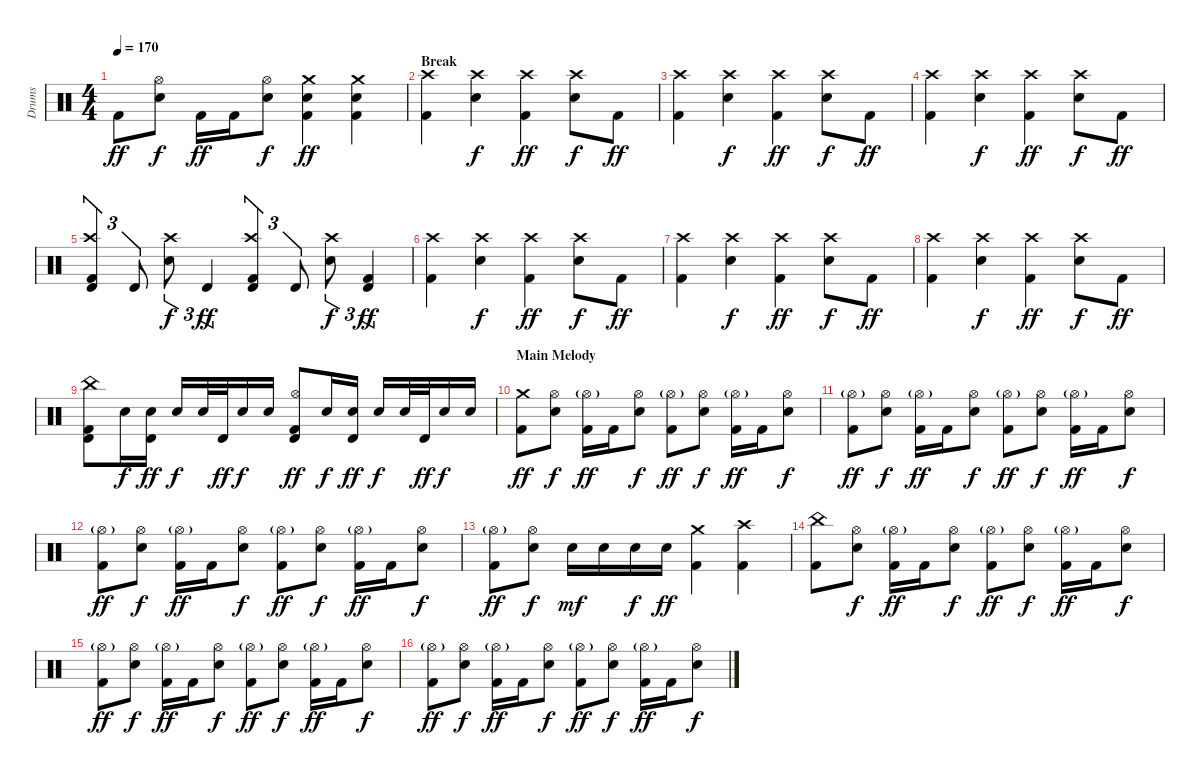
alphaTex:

\track ("Drums" "Drums") {instrument percussion}
\staff {score}
\articulation defaults
\ts (4 4)
\tempo 170
\clef neutral
\ks c "Kick (hit) 2".8{dy ff}
("Hi-Hat (open)" "Electric Snare (hit)").8{dy f} "Kick (hit) 2".16{dy ff} "Kick (hit) 2".16 ("Hi-Hat (open)" "Electric Snare (hit)").8{dy f} ("Crash medium (hit)" "Electric Snare (hit)" "Kick (hit) 2").4{dy ff} ("Crash medium (hit)" "Electric Snare (hit)" "Kick (hit) 2").4 |
\section ("" "Break")
("Crash high (hit)" "Kick (hit) 2").4{volume 13} ("Crash high (hit)" "Electric Snare (hit)").4{dy f} ("Crash high (hit)" "Kick (hit) 2").4{dy ff} ("Crash high (hit)" "Electric Snare (hit)").8{dy f} "Kick (hit) 2".8{dy ff} |
("Crash high (hit)" "Kick (hit) 2").4 ("Crash high (hit)" "Electric Snare (hit)").4{dy f} ("Crash high (hit)" "Kick (hit) 2").4{dy ff} ("Crash high (hit)" "Electric Snare (hit)").8{dy f} "Kick (hit) 2".8{dy ff} |
("Crash high (hit)" "Kick (hit) 2").4 ("Crash high (hit)" "Electric Snare (hit)").4{dy f} ("Crash high (hit)" "Kick (hit) 2").4{dy ff} ("Crash high (hit)" "Electric Snare (hit)").8{dy f} "Kick (hit) 2".8{dy ff} |
("Crash high (hit)" "Timbale high (hit)" "Kick (hit) 2").4{tu (3 2)} "Timbale high (hit)".8{tu (3 2)} ("Crash high (hit)" "Electric Snare (hit)").8{tu (3 2) dy f} "Timbale high (hit)".4{tu (3 2) dy ff} ("Crash high (hit)" "Timbale high (hit)" "Kick (hit) 2").4{tu (3 2)} "Timbale high (hit)".8{tu (3 2)} ("Crash high (hit)" "Electric Snare (hit)").8{tu (3 2) dy f} ("Timbale high (hit)" "Kick (hit) 2").4{tu (3 2) dy ff} |
("Crash high (hit)" "Kick (hit) 2").4{volume 13} ("Crash high (hit)" "Electric Snare (hit)").4{dy f} ("Crash high (hit)" "Kick (hit) 2").4{dy ff} ("Crash high (hit)" "Electric Snare (hit)").8{dy f} "Kick (hit) 2".8{dy ff} |
("Crash high (hit)" "Kick (hit) 2").4 ("Crash high (hit)" "Electric Snare (hit)").4{dy f} ("Crash high (hit)" "Kick (hit) 2").4{dy ff} ("Crash high (hit)" "Electric Snare (hit)").8{dy f} "Kick (hit) 2".8{dy ff} |
("Crash high (hit)" "Kick (hit) 2").4 ("Crash high (hit)" "Electric Snare (hit)").4{dy f} ("Crash high (hit)" "Kick (hit) 2").4{dy ff} ("Crash high (hit)" "Electric Snare (hit)").8{dy f} "Kick (hit) 2".8{dy ff} |
("China (hit)" "Timbale high (hit)" "Kick (hit) 2").8 "Electric Snare (hit)".16{dy f} ("Timbale high (hit)" "Electric Snare (hit)").16{dy ff} "Electric Snare (hit)".16{dy f} "Electric Snare (hit)".32 "Timbale high (hit)".32{dy ff} "Electric Snare (hit)".16{dy f} "Electric Snare (hit)".16 ("Timbale high (hit)" "Hi-Hat (open)" "Kick (hit) 2").8{dy ff} "Electric Snare (hit)".16{dy f} ("Timbale high (hit)" "Electric Snare (hit)").16{dy ff} "Electric Snare (hit)".16{dy f} "Electric Snare (hit)".32 "Timbale high (hit)".32{dy ff} "Electric Snare (hit)".16{dy f} "Electric Snare (hit)".16 |
\section ("" "Main Melody")
("Crash medium (hit)" "Kick (hit) 2").8{dy ff volume 13} ("Hi-Hat (open)" "Electric Snare (hit)").8{dy f} ("Hi-Hat (open)"{g} "Kick (hit) 2").16{dy ff} "Kick (hit) 2".16 ("Hi-Hat (open)" "Electric Snare (hit)").8{dy f} ("Hi-Hat (open)"{g} "Kick (hit) 2").8{dy ff} ("Hi-Hat (open)" "Electric Snare (hit)").8{dy f} ("Hi-Hat (open)"{g} "Kick (hit) 2").16{dy ff} "Kick (hit) 2".16 ("Hi-Hat (open)" "Electric Snare (hit)").8{dy f} |
("Hi-Hat (open)"{g} "Kick (hit) 2").8{dy ff} ("Hi-Hat (open)" "Electric Snare (hit)").8{dy f} ("Hi-Hat (open)"{g} "Kick (hit) 2").16{dy ff} "Kick (hit) 2".16 ("Hi-Hat (open)" "Electric Snare (hit)").8{dy f} ("Hi-Hat (open)"{g} "Kick (hit) 2").8{dy ff} ("Hi-Hat (open)" "Electric Snare (hit)").8{dy f} ("Hi-Hat (open)"{g} "Kick (hit) 2").16{dy ff} "Kick (hit) 2".16 ("Hi-Hat (open)" "Electric Snare (hit)").8{dy f} |
("Hi-Hat (open)"{g} "Kick (hit) 2").8{dy ff} ("Hi-Hat (open)" "Electric Snare (hit)").8{dy f} ("Hi-Hat (open)"{g} "Kick (hit) 2").16{dy ff} "Kick (hit) 2".16 ("Hi-Hat (open)" "Electric Snare (hit)").8{dy f} ("Hi-Hat (open)"{g} "Kick (hit) 2").8{dy ff} ("Hi-Hat (open)" "Electric Snare (hit)").8{dy f} ("Hi-Hat (open)"{g} "Kick (hit) 2").16{dy ff} "Kick (hit) 2".16 ("Hi-Hat (open)" "Electric Snare (hit)").8{dy f} |
("Hi-Hat (open)"{g} "Kick (hit) 2").8{dy ff} ("Hi-Hat (open)" "Electric Snare (hit)").8{dy f} "Electric Snare (hit)".16{dy mf} "Electric Snare (hit)".16 "Electric Snare (hit)".16{dy f} "Electric Snare (hit)".16{dy ff} ("Crash medium (hit)" "Kick (hit) 2").4 ("Crash high (hit)" "Kick (hit) 2").4 |
("China (hit)" "Kick (hit) 2").8 ("Hi-Hat (open)" "Electric Snare (hit)").8{dy f} ("Hi-Hat (open)"{g} "Kick (hit) 2").16{dy ff} "Kick (hit) 2".16 ("Hi-Hat (open)" "Electric Snare (hit)").8{dy f} ("Hi-Hat (open)"{g} "Kick (hit) 2").8{dy ff} ("Hi-Hat (open)" "Electric Snare (hit)").8{dy f} ("Hi-Hat (open)"{g} "Kick (hit) 2").16{dy ff} "Kick (hit) 2".16 ("Hi-Hat (open)" "Electric Snare (hit)").8{dy f} |
("Hi-Hat (open)"{g} "Kick (hit) 2").8{dy ff} ("Hi-Hat (open)" "Electric Snare (hit)").8{dy f} ("Hi-Hat (open)"{g} "Kick (hit) 2").16{dy ff} "Kick (hit) 2".16 ("Hi-Hat (open)" "Electric Snare (hit)").8{dy f} ("Hi-Hat (open)"{g} "Kick (hit) 2").8{dy ff} ("Hi-Hat (open)" "Electric Snare (hit)").8{dy f} ("Hi-Hat (open)"{g} "Kick (hit) 2").16{dy ff} "Kick (hit) 2".16 ("Hi-Hat (open)" "Electric Snare (hit)").8{dy f} |
("Hi-Hat (open)"{g} "Kick (hit) 2").8{dy ff} ("Hi-Hat (open)" "Electric Snare (hit)").8{dy f} ("Hi-Hat (open)"{g} "Kick (hit) 2").16{dy ff} "Kick (hit) 2".16 ("Hi-Hat (open)" "Electric Snare (hit)").8{dy f} ("Hi-Hat (open)"{g} "Kick (hit) 2").8{dy ff} ("Hi-Hat (open)" "Electric Snare (hit)").8{dy f} ("Hi-Hat (open)"{g} "Kick (hit) 2").16{dy ff} "Kick (hit) 2".16 ("Hi-Hat (open)" "Electric Snare (hit)").8{dy f}
